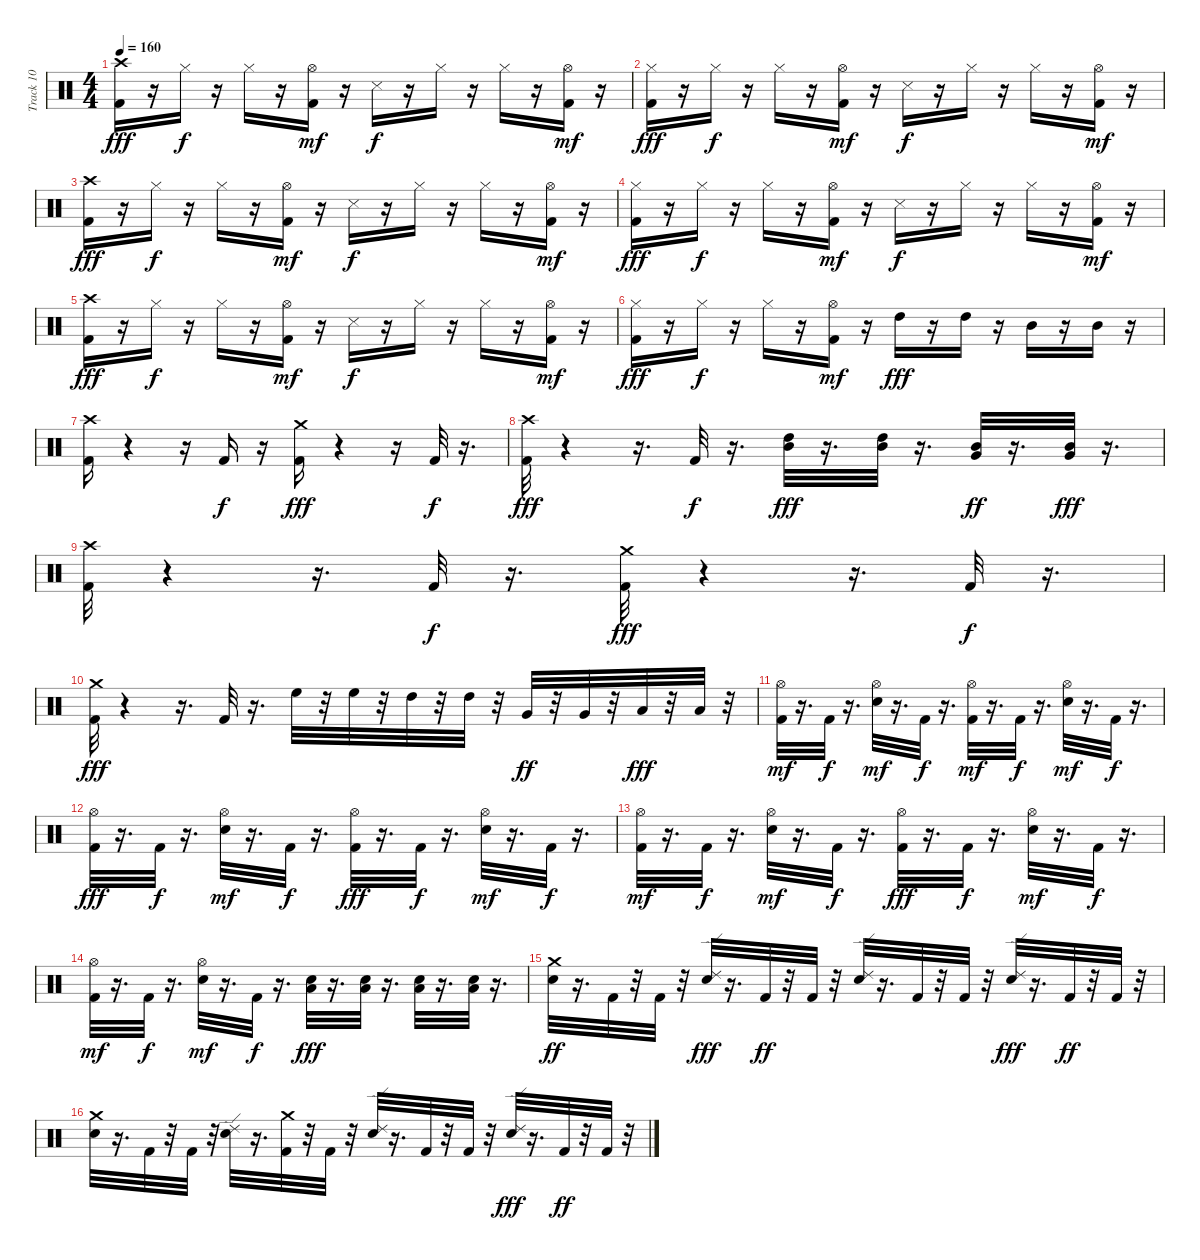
\track ("Track 10" "Track 10") {instrument percussion}
\staff {score}
\articulation defaults
\ts (4 4)
\tempo 160
\clef neutral
\ks c
("Crash high (hit)" "Kick (hit) 2").16{dy fff} r.16 "Hi-Hat (closed)".16{dy f} r.16 "Hi-Hat (closed)".16 r.16 ("Kick (hit) 2" "Hi-Hat (open)").16{dy mf} r.16 "Snare (side stick) 3".16{dy f} r.16 "Hi-Hat (closed)".16 r.16 "Hi-Hat (closed)".16 r.16 ("Kick (hit) 2" "Hi-Hat (open)").16{dy mf} r.16 |
("Kick (hit) 2" "Hi-Hat (closed)").16{dy fff} r.16 "Hi-Hat (closed)".16{dy f} r.16 "Hi-Hat (closed)".16 r.16 ("Kick (hit) 2" "Hi-Hat (open)").16{dy mf} r.16 "Snare (side stick) 3".16{dy f} r.16 "Hi-Hat (closed)".16 r.16 "Hi-Hat (closed)".16 r.16 ("Hi-Hat (open)" "Kick (hit) 2").16{dy mf} r.16 |
("Crash high (hit)" "Kick (hit) 2").16{dy fff} r.16 "Hi-Hat (closed)".16{dy f} r.16 "Hi-Hat (closed)".16 r.16 ("Kick (hit) 2" "Hi-Hat (open)").16{dy mf} r.16 "Snare (side stick) 3".16{dy f} r.16 "Hi-Hat (closed)".16 r.16 "Hi-Hat (closed)".16 r.16 ("Hi-Hat (open)" "Kick (hit) 2").16{dy mf} r.16 |
("Hi-Hat (closed)" "Kick (hit) 2").16{dy fff} r.16 "Hi-Hat (closed)".16{dy f} r.16 "Hi-Hat (closed)".16 r.16 ("Kick (hit) 2" "Hi-Hat (open)").16{dy mf} r.16 "Snare (side stick) 3".16{dy f} r.16 "Hi-Hat (closed)".16 r.16 "Hi-Hat (closed)".16 r.16 ("Hi-Hat (open)" "Kick (hit) 2").16{dy mf} r.16 |
("Crash high (hit)" "Kick (hit) 2").16{dy fff} r.16 "Hi-Hat (closed)".16{dy f} r.16 "Hi-Hat (closed)".16 r.16 ("Hi-Hat (open)" "Kick (hit) 2").16{dy mf} r.16 "Snare (side stick) 3".16{dy f} r.16 "Hi-Hat (closed)".16 r.16 "Hi-Hat (closed)".16 r.16 ("Kick (hit) 2" "Hi-Hat (open)").16{dy mf} r.16 |
("Kick (hit) 2" "Hi-Hat (closed)").16{dy fff} r.16 "Hi-Hat (closed)".16{dy f} r.16 "Hi-Hat (closed)".16 r.16 ("Hi-Hat (open)" "Kick (hit) 2").16{dy mf} r.16 "High Tom (hit)".16{dy fff} r.16 "High Tom (hit)".16 r.16 "Mid Tom (hit)".16 r.16 "Mid Tom (hit)".16 r.16 |
("Kick (hit) 2" "Crash high (hit)").16 r.4 r.16 "Kick (hit) 2".16{dy f} r.16 ("Kick (hit) 2" "Crash medium (hit)").16{dy fff} r.4 r.16 "Kick (hit) 2".32{dy f} r.16{d} |
("Crash high (hit)" "Kick (hit) 2").32{dy fff} r.4 r.16{d} "Kick (hit) 2".32{dy f} r.16{d} ("Mid Tom (hit)" "High Tom (hit)").32{dy fff} r.16{d} ("Mid Tom (hit)" "High Tom (hit)").32 r.16{d} ("Mid Tom (hit)" "Very Low Tom (hit)").32{dy ff} r.16{d} ("Very Low Tom (hit)" "Mid Tom (hit)").32{dy fff} r.16{d} |
("Kick (hit) 2" "Crash high (hit)").32 r.4 r.16{d} "Kick (hit) 2".32{dy f} r.16{d} ("Crash medium (hit)" "Kick (hit) 2").32{dy fff} r.4 r.16{d} "Kick (hit) 2".32{dy f} r.16{d} |
("Crash medium (hit)" "Kick (hit) 2").32{dy fff} r.4 r.16{d} "Kick (hit) 2".32 r.16{d} "High Floor Tom (hit)".32 r.32 "High Floor Tom (hit)".32 r.32 "High Tom (hit)".32 r.32 "High Tom (hit)".32 r.32 "Very Low Tom (hit)".32{dy ff} r.32 "Very Low Tom (hit)".32 r.32 "Low Tom (hit)".32{dy fff} r.32 "Low Tom (hit)".32 r.32 |
("Kick (hit) 2" "Hi-Hat (open)").32{dy mf} r.16{d} "Kick (hit) 2".32{dy f} r.16{d} ("Hi-Hat (open)" "Electric Snare (hit)").32{dy mf} r.16{d} "Kick (hit) 2".32{dy f} r.16{d} ("Kick (hit) 2" "Hi-Hat (open)").32{dy mf} r.16{d} "Kick (hit) 2".32{dy f} r.16{d} ("Hi-Hat (open)" "Electric Snare (hit)").32{dy mf} r.16{d} "Kick (hit) 2".32{dy f} r.16{d} |
("Hi-Hat (open)" "Kick (hit) 2").32{dy fff} r.16{d} "Kick (hit) 2".32{dy f} r.16{d} ("Electric Snare (hit)" "Hi-Hat (open)").32{dy mf} r.16{d} "Kick (hit) 2".32{dy f} r.16{d} ("Hi-Hat (open)" "Kick (hit) 2").32{dy fff} r.16{d} "Kick (hit) 2".32{dy f} r.16{d} ("Hi-Hat (open)" "Electric Snare (hit)").32{dy mf} r.16{d} "Kick (hit) 2".32{dy f} r.16{d} |
("Kick (hit) 2" "Hi-Hat (open)").32{dy mf} r.16{d} "Kick (hit) 2".32{dy f} r.16{d} ("Hi-Hat (open)" "Electric Snare (hit)").32{dy mf} r.16{d} "Kick (hit) 2".32{dy f} r.16{d} ("Hi-Hat (open)" "Kick (hit) 2").32{dy fff} r.16{d} "Kick (hit) 2".32{dy f} r.16{d} ("Electric Snare (hit)" "Hi-Hat (open)").32{dy mf} r.16{d} "Kick (hit) 2".32{dy f} r.16{d} |
("Kick (hit) 2" "Hi-Hat (open)").32{dy mf} r.16{d} "Kick (hit) 2".32{dy f} r.16{d} ("Electric Snare (hit)" "Hi-Hat (open)").32{dy mf} r.16{d} "Kick (hit) 2".32{dy f} r.16{d} ("Low Tom (hit)" "Electric Snare (hit)").32{dy fff} r.16{d} ("Low Tom (hit)" "Electric Snare (hit)").32 r.16{d} ("Electric Snare (hit)" "Low Tom (hit)").32 r.16{d} ("Electric Snare (hit)" "Low Tom (hit)").32 r.16{d} |
("Electric Snare (hit)" "Crash medium (hit)").32{dy ff} r.16{d} "Kick (hit) 2".32 r.32 "Kick (hit) 2".32 r.32 ("Electric Snare (hit)" "Ride (edge) 2").32{dy fff} r.16{d} "Kick (hit) 2".32{dy ff} r.32 "Kick (hit) 2".32 r.32 ("Ride (edge) 2" "Electric Snare (hit)").32 r.16{d} "Kick (hit) 2".32 r.32 "Kick (hit) 2".32 r.32 ("Electric Snare (hit)" "Ride (edge) 2").32{dy fff} r.16{d} "Kick (hit) 2".32{dy ff} r.32 "Kick (hit) 2".32 r.32 |
("Crash medium (hit)" "Electric Snare (hit)").32 r.16{d} "Kick (hit) 2".32 r.32 "Kick (hit) 2".32 r.32 ("Ride (edge) 2" "Electric Snare (hit)").32 r.16{d} ("Crash medium (hit)" "Kick (hit) 2").32 r.32 "Kick (hit) 2".32 r.32 ("Ride (edge) 2" "Electric Snare (hit)").32 r.16{d} "Kick (hit) 2".32 r.32 "Kick (hit) 2".32 r.32 ("Electric Snare (hit)" "Ride (edge) 2").32{dy fff} r.16{d} "Kick (hit) 2".32{dy ff} r.32 "Kick (hit) 2".32 r.32
